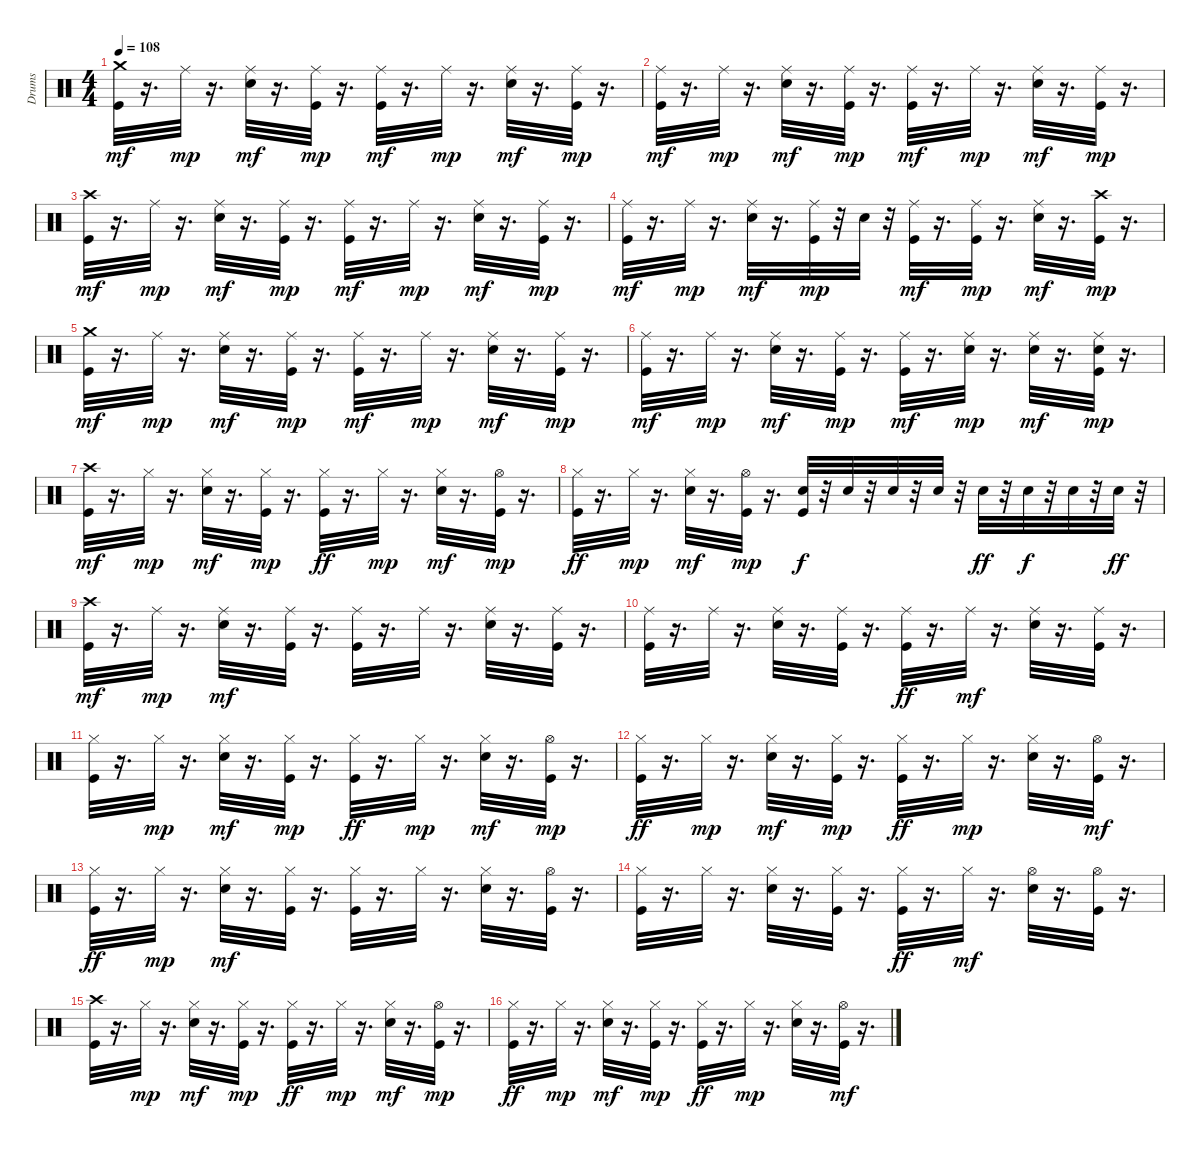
\track ("Drums" "Drums") {instrument percussion}
\staff {score}
\articulation defaults
\ts (4 4)
\tempo 108
\clef neutral
\ks c
("Kick (hit)" "Crash medium (hit)").32{dy mf} r.16{d} "Ride (middle)".32{dy mp} r.16{d} ("Electric Snare (hit)" "Ride (middle)").32{dy mf} r.16{d} ("Kick (hit)" "Ride (middle)").32{dy mp} r.16{d} ("Kick (hit)" "Ride (middle)").32{dy mf} r.16{d} "Ride (middle)".32{dy mp} r.16{d} ("Electric Snare (hit)" "Ride (middle)").32{dy mf} r.16{d} ("Kick (hit)" "Ride (middle)").32{dy mp} r.16{d} |
("Kick (hit)" "Ride (middle)").32{dy mf} r.16{d} "Ride (middle)".32{dy mp} r.16{d} ("Electric Snare (hit)" "Ride (middle)").32{dy mf} r.16{d} ("Kick (hit)" "Ride (middle)").32{dy mp} r.16{d} ("Kick (hit)" "Ride (middle)").32{dy mf} r.16{d} "Ride (middle)".32{dy mp} r.16{d} ("Electric Snare (hit)" "Ride (middle)").32{dy mf} r.16{d} ("Kick (hit)" "Ride (middle)").32{dy mp} r.16{d} |
("Kick (hit)" "Crash high (hit)").32{dy mf} r.16{d} "Ride (middle)".32{dy mp} r.16{d} ("Electric Snare (hit)" "Ride (middle)").32{dy mf} r.16{d} ("Kick (hit)" "Ride (middle)").32{dy mp} r.16{d} ("Kick (hit)" "Ride (middle)").32{dy mf} r.16{d} "Ride (middle)".32{dy mp} r.16{d} ("Electric Snare (hit)" "Ride (middle)").32{dy mf} r.16{d} ("Kick (hit)" "Ride (middle)").32{dy mp} r.16{d} |
("Kick (hit)" "Ride (middle)").32{dy mf} r.16{d} "Ride (middle)".32{dy mp} r.16{d} ("Electric Snare (hit)" "Ride (middle)").32{dy mf} r.16{d} ("Kick (hit)" "Ride (middle)").32{dy mp} r.32 "Electric Snare (hit)".32 r.32 ("Kick (hit)" "Ride (middle)").32{dy mf} r.16{d} ("Kick (hit)" "Ride (middle)").32{dy mp} r.16{d} ("Electric Snare (hit)" "Ride (middle)").32{dy mf} r.16{d} ("Kick (hit)" "Crash high (hit)").32{dy mp} r.16{d} |
("Kick (hit)" "Crash medium (hit)").32{dy mf} r.16{d} "Ride (middle)".32{dy mp} r.16{d} ("Electric Snare (hit)" "Ride (middle)").32{dy mf} r.16{d} ("Kick (hit)" "Ride (middle)").32{dy mp} r.16{d} ("Kick (hit)" "Ride (middle)").32{dy mf} r.16{d} "Ride (middle)".32{dy mp} r.16{d} ("Electric Snare (hit)" "Ride (middle)").32{dy mf} r.16{d} ("Kick (hit)" "Ride (middle)").32{dy mp} r.16{d} |
("Kick (hit)" "Ride (middle)").32{dy mf} r.16{d} "Ride (middle)".32{dy mp} r.16{d} ("Electric Snare (hit)" "Ride (middle)").32{dy mf} r.16{d} ("Kick (hit)" "Ride (middle)").32{dy mp} r.16{d} ("Kick (hit)" "Ride (middle)").32{dy mf} r.16{d} ("Electric Snare (hit)" "Ride (middle)").32{dy mp} r.16{d} ("Electric Snare (hit)" "Ride (middle)").32{dy mf} r.16{d} ("Kick (hit)" "Electric Snare (hit)" "Ride (middle)").32{dy mp} r.16{d} |
("Kick (hit)" "Crash high (hit)").32{dy mf} r.16{d} "Hi-Hat (closed)".32{dy mp} r.16{d} ("Electric Snare (hit)" "Hi-Hat (closed)").32{dy mf} r.16{d} ("Kick (hit)" "Hi-Hat (closed)").32{dy mp} r.16{d} ("Kick (hit)" "Hi-Hat (closed)").32{dy ff} r.16{d} "Hi-Hat (closed)".32{dy mp} r.16{d} ("Electric Snare (hit)" "Hi-Hat (closed)").32{dy mf} r.16{d} ("Kick (hit)" "Hi-Hat (open)").32{dy mp} r.16{d} |
("Kick (hit)" "Hi-Hat (closed)").32{dy ff} r.16{d} "Hi-Hat (closed)".32{dy mp} r.16{d} ("Electric Snare (hit)" "Hi-Hat (closed)").32{dy mf} r.16{d} ("Kick (hit)" "Hi-Hat (open)").32{dy mp} r.16{d} ("Kick (hit)" "Electric Snare (hit)").32{dy f} r.32 "Electric Snare (hit)".32 r.32 "Electric Snare (hit)".32 r.32 "Electric Snare (hit)".32 r.32 "Electric Snare (hit)".32{dy ff} r.32 "Electric Snare (hit)".32{dy f} r.32 "Electric Snare (hit)".32 r.32 "Electric Snare (hit)".32{dy ff} r.32 |
("Kick (hit)" "Crash high (hit)").32{dy mf} r.16{d} "Ride (middle)".32{dy mp} r.16{d} ("Electric Snare (hit)" "Ride (middle)").32{dy mf} r.16{d} ("Kick (hit)" "Ride (middle)").32 r.16{d} ("Kick (hit)" "Ride (middle)").32 r.16{d} "Ride (middle)".32 r.16{d} ("Electric Snare (hit)" "Ride (middle)").32 r.16{d} ("Kick (hit)" "Ride (middle)").32 r.16{d} |
("Kick (hit)" "Ride (middle)").32 r.16{d} "Ride (middle)".32 r.16{d} ("Electric Snare (hit)" "Ride (middle)").32 r.16{d} ("Kick (hit)" "Ride (middle)").32 r.16{d} ("Kick (hit)" "Ride (middle)").32{dy ff} r.16{d} "Ride (middle)".32{dy mf} r.16{d} ("Electric Snare (hit)" "Ride (middle)").32 r.16{d} ("Kick (hit)" "Ride (middle)").32 r.16{d} |
("Kick (hit)" "Hi-Hat (closed)").32 r.16{d} "Hi-Hat (closed)".32{dy mp} r.16{d} ("Electric Snare (hit)" "Hi-Hat (closed)").32{dy mf} r.16{d} ("Kick (hit)" "Hi-Hat (closed)").32{dy mp} r.16{d} ("Kick (hit)" "Hi-Hat (closed)").32{dy ff} r.16{d} "Hi-Hat (closed)".32{dy mp} r.16{d} ("Electric Snare (hit)" "Hi-Hat (closed)").32{dy mf} r.16{d} ("Kick (hit)" "Hi-Hat (open)").32{dy mp} r.16{d} |
("Kick (hit)" "Hi-Hat (closed)").32{dy ff} r.16{d} "Hi-Hat (closed)".32{dy mp} r.16{d} ("Electric Snare (hit)" "Hi-Hat (closed)").32{dy mf} r.16{d} ("Kick (hit)" "Hi-Hat (closed)").32{dy mp} r.16{d} ("Kick (hit)" "Hi-Hat (closed)").32{dy ff} r.16{d} "Hi-Hat (closed)".32{dy mp} r.16{d} ("Electric Snare (hit)" "Hi-Hat (closed)").32 r.16{d} ("Kick (hit)" "Hi-Hat (open)").32{dy mf} r.16{d} |
("Kick (hit)" "Hi-Hat (closed)").32{dy ff} r.16{d} "Hi-Hat (closed)".32{dy mp} r.16{d} ("Electric Snare (hit)" "Hi-Hat (closed)").32{dy mf} r.16{d} ("Kick (hit)" "Hi-Hat (closed)").32 r.16{d} ("Kick (hit)" "Hi-Hat (closed)").32 r.16{d} "Hi-Hat (closed)".32 r.16{d} ("Electric Snare (hit)" "Hi-Hat (closed)").32 r.16{d} ("Kick (hit)" "Hi-Hat (open)").32 r.16{d} |
("Kick (hit)" "Hi-Hat (closed)").32 r.16{d} "Hi-Hat (closed)".32 r.16{d} ("Electric Snare (hit)" "Hi-Hat (closed)").32 r.16{d} ("Kick (hit)" "Hi-Hat (closed)").32 r.16{d} ("Kick (hit)" "Hi-Hat (closed)").32{dy ff} r.16{d} "Hi-Hat (closed)".32{dy mf} r.16{d} ("Electric Snare (hit)" "Hi-Hat (open)").32 r.16{d} ("Kick (hit)" "Hi-Hat (open)").32 r.16{d} |
("Kick (hit)" "Crash high (hit)").32 r.16{d} "Hi-Hat (closed)".32{dy mp} r.16{d} ("Electric Snare (hit)" "Hi-Hat (closed)").32{dy mf} r.16{d} ("Kick (hit)" "Hi-Hat (closed)").32{dy mp} r.16{d} ("Kick (hit)" "Hi-Hat (closed)").32{dy ff} r.16{d} "Hi-Hat (closed)".32{dy mp} r.16{d} ("Electric Snare (hit)" "Hi-Hat (closed)").32{dy mf} r.16{d} ("Kick (hit)" "Hi-Hat (open)").32{dy mp} r.16{d} |
("Kick (hit)" "Hi-Hat (closed)").32{dy ff} r.16{d} "Hi-Hat (closed)".32{dy mp} r.16{d} ("Electric Snare (hit)" "Hi-Hat (closed)").32{dy mf} r.16{d} ("Kick (hit)" "Hi-Hat (closed)").32{dy mp} r.16{d} ("Kick (hit)" "Hi-Hat (closed)").32{dy ff} r.16{d} "Hi-Hat (closed)".32{dy mp} r.16{d} ("Electric Snare (hit)" "Hi-Hat (closed)").32 r.16{d} ("Kick (hit)" "Hi-Hat (open)").32{dy mf} r.16{d}
